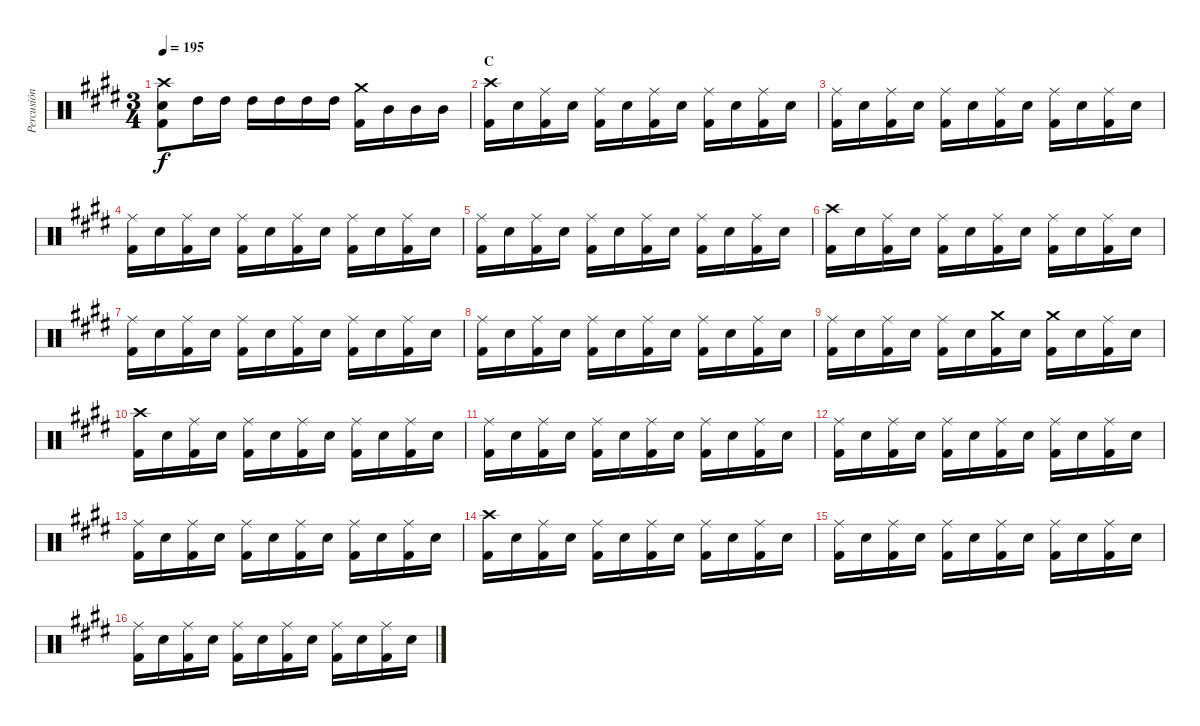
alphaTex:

\track ("Percusión" "Percusión") {instrument percussion}
\staff {score}
\articulation defaults
\ts (3 4)
\tempo 195
\clef neutral
\ks e
("Crash high (hit)" "Electric Snare (hit)" "Kick (hit) 2").8{dy f} "High Tom (hit)".16 "High Tom (hit)".16 "High Tom (hit)".16 "High Tom (hit)".16 "High Tom (hit)".16 "High Tom (hit)".16 ("Crash medium (hit)" "Kick (hit) 2").16 "Mid Tom (hit)".16 "Mid Tom (hit)".16 "Mid Tom (hit)".16 |
\section ("" "C")
("Crash high (hit)" "Kick (hit) 2").16 "Electric Snare (hit)".16 ("Ride (middle)" "Kick (hit) 2").16 "Electric Snare (hit)".16 ("Ride (middle)" "Kick (hit) 2").16 "Electric Snare (hit)".16 ("Ride (middle)" "Kick (hit) 2").16 "Electric Snare (hit)".16 ("Ride (middle)" "Kick (hit) 2").16 "Electric Snare (hit)".16 ("Ride (middle)" "Kick (hit) 2").16 "Electric Snare (hit)".16 |
("Ride (middle)" "Kick (hit) 2").16 "Electric Snare (hit)".16 ("Ride (middle)" "Kick (hit) 2").16 "Electric Snare (hit)".16 ("Ride (middle)" "Kick (hit) 2").16 "Electric Snare (hit)".16 ("Ride (middle)" "Kick (hit) 2").16 "Electric Snare (hit)".16 ("Ride (middle)" "Kick (hit) 2").16 "Electric Snare (hit)".16 ("Ride (middle)" "Kick (hit) 2").16 "Electric Snare (hit)".16 |
("Ride (middle)" "Kick (hit) 2").16 "Electric Snare (hit)".16 ("Ride (middle)" "Kick (hit) 2").16 "Electric Snare (hit)".16 ("Ride (middle)" "Kick (hit) 2").16 "Electric Snare (hit)".16 ("Ride (middle)" "Kick (hit) 2").16 "Electric Snare (hit)".16 ("Ride (middle)" "Kick (hit) 2").16 "Electric Snare (hit)".16 ("Ride (middle)" "Kick (hit) 2").16 "Electric Snare (hit)".16 |
("Ride (middle)" "Kick (hit) 2").16 "Electric Snare (hit)".16 ("Ride (middle)" "Kick (hit) 2").16 "Electric Snare (hit)".16 ("Ride (middle)" "Kick (hit) 2").16 "Electric Snare (hit)".16 ("Ride (middle)" "Kick (hit) 2").16 "Electric Snare (hit)".16 ("Ride (middle)" "Kick (hit) 2").16 "Electric Snare (hit)".16 ("Ride (middle)" "Kick (hit) 2").16 "Electric Snare (hit)".16 |
("Crash high (hit)" "Kick (hit) 2").16 "Electric Snare (hit)".16 ("Ride (middle)" "Kick (hit) 2").16 "Electric Snare (hit)".16 ("Ride (middle)" "Kick (hit) 2").16 "Electric Snare (hit)".16 ("Ride (middle)" "Kick (hit) 2").16 "Electric Snare (hit)".16 ("Ride (middle)" "Kick (hit) 2").16 "Electric Snare (hit)".16 ("Ride (middle)" "Kick (hit) 2").16 "Electric Snare (hit)".16 |
("Ride (middle)" "Kick (hit) 2").16 "Electric Snare (hit)".16 ("Ride (middle)" "Kick (hit) 2").16 "Electric Snare (hit)".16 ("Ride (middle)" "Kick (hit) 2").16 "Electric Snare (hit)".16 ("Ride (middle)" "Kick (hit) 2").16 "Electric Snare (hit)".16 ("Ride (middle)" "Kick (hit) 2").16 "Electric Snare (hit)".16 ("Ride (middle)" "Kick (hit) 2").16 "Electric Snare (hit)".16 |
("Ride (middle)" "Kick (hit) 2").16 "Electric Snare (hit)".16 ("Ride (middle)" "Kick (hit) 2").16 "Electric Snare (hit)".16 ("Ride (middle)" "Kick (hit) 2").16 "Electric Snare (hit)".16 ("Ride (middle)" "Kick (hit) 2").16 "Electric Snare (hit)".16 ("Ride (middle)" "Kick (hit) 2").16 "Electric Snare (hit)".16 ("Ride (middle)" "Kick (hit) 2").16 "Electric Snare (hit)".16 |
("Ride (middle)" "Kick (hit) 2").16 "Electric Snare (hit)".16 ("Ride (middle)" "Kick (hit) 2").16 "Electric Snare (hit)".16 ("Ride (middle)" "Kick (hit) 2").16 "Electric Snare (hit)".16 ("Crash medium (hit)" "Kick (hit) 2").16 "Electric Snare (hit)".16 ("Crash medium (hit)" "Kick (hit) 2").16 "Electric Snare (hit)".16 ("Ride (middle)" "Kick (hit) 2").16 "Electric Snare (hit)".16 |
("Crash high (hit)" "Kick (hit) 2").16 "Electric Snare (hit)".16 ("Ride (middle)" "Kick (hit) 2").16 "Electric Snare (hit)".16 ("Ride (middle)" "Kick (hit) 2").16 "Electric Snare (hit)".16 ("Ride (middle)" "Kick (hit) 2").16 "Electric Snare (hit)".16 ("Ride (middle)" "Kick (hit) 2").16 "Electric Snare (hit)".16 ("Ride (middle)" "Kick (hit) 2").16 "Electric Snare (hit)".16 |
("Ride (middle)" "Kick (hit) 2").16 "Electric Snare (hit)".16 ("Ride (middle)" "Kick (hit) 2").16 "Electric Snare (hit)".16 ("Ride (middle)" "Kick (hit) 2").16 "Electric Snare (hit)".16 ("Ride (middle)" "Kick (hit) 2").16 "Electric Snare (hit)".16 ("Ride (middle)" "Kick (hit) 2").16 "Electric Snare (hit)".16 ("Ride (middle)" "Kick (hit) 2").16 "Electric Snare (hit)".16 |
("Ride (middle)" "Kick (hit) 2").16 "Electric Snare (hit)".16 ("Ride (middle)" "Kick (hit) 2").16 "Electric Snare (hit)".16 ("Ride (middle)" "Kick (hit) 2").16 "Electric Snare (hit)".16 ("Ride (middle)" "Kick (hit) 2").16 "Electric Snare (hit)".16 ("Ride (middle)" "Kick (hit) 2").16 "Electric Snare (hit)".16 ("Ride (middle)" "Kick (hit) 2").16 "Electric Snare (hit)".16 |
("Ride (middle)" "Kick (hit) 2").16 "Electric Snare (hit)".16 ("Ride (middle)" "Kick (hit) 2").16 "Electric Snare (hit)".16 ("Ride (middle)" "Kick (hit) 2").16 "Electric Snare (hit)".16 ("Ride (middle)" "Kick (hit) 2").16 "Electric Snare (hit)".16 ("Ride (middle)" "Kick (hit) 2").16 "Electric Snare (hit)".16 ("Ride (middle)" "Kick (hit) 2").16 "Electric Snare (hit)".16 |
("Crash high (hit)" "Kick (hit) 2").16 "Electric Snare (hit)".16 ("Ride (middle)" "Kick (hit) 2").16 "Electric Snare (hit)".16 ("Ride (middle)" "Kick (hit) 2").16 "Electric Snare (hit)".16 ("Ride (middle)" "Kick (hit) 2").16 "Electric Snare (hit)".16 ("Ride (middle)" "Kick (hit) 2").16 "Electric Snare (hit)".16 ("Ride (middle)" "Kick (hit) 2").16 "Electric Snare (hit)".16 |
("Ride (middle)" "Kick (hit) 2").16 "Electric Snare (hit)".16 ("Ride (middle)" "Kick (hit) 2").16 "Electric Snare (hit)".16 ("Ride (middle)" "Kick (hit) 2").16 "Electric Snare (hit)".16 ("Ride (middle)" "Kick (hit) 2").16 "Electric Snare (hit)".16 ("Ride (middle)" "Kick (hit) 2").16 "Electric Snare (hit)".16 ("Ride (middle)" "Kick (hit) 2").16 "Electric Snare (hit)".16 |
("Ride (middle)" "Kick (hit) 2").16 "Electric Snare (hit)".16 ("Ride (middle)" "Kick (hit) 2").16 "Electric Snare (hit)".16 ("Ride (middle)" "Kick (hit) 2").16 "Electric Snare (hit)".16 ("Ride (middle)" "Kick (hit) 2").16 "Electric Snare (hit)".16 ("Ride (middle)" "Kick (hit) 2").16 "Electric Snare (hit)".16 ("Ride (middle)" "Kick (hit) 2").16 "Electric Snare (hit)".16
